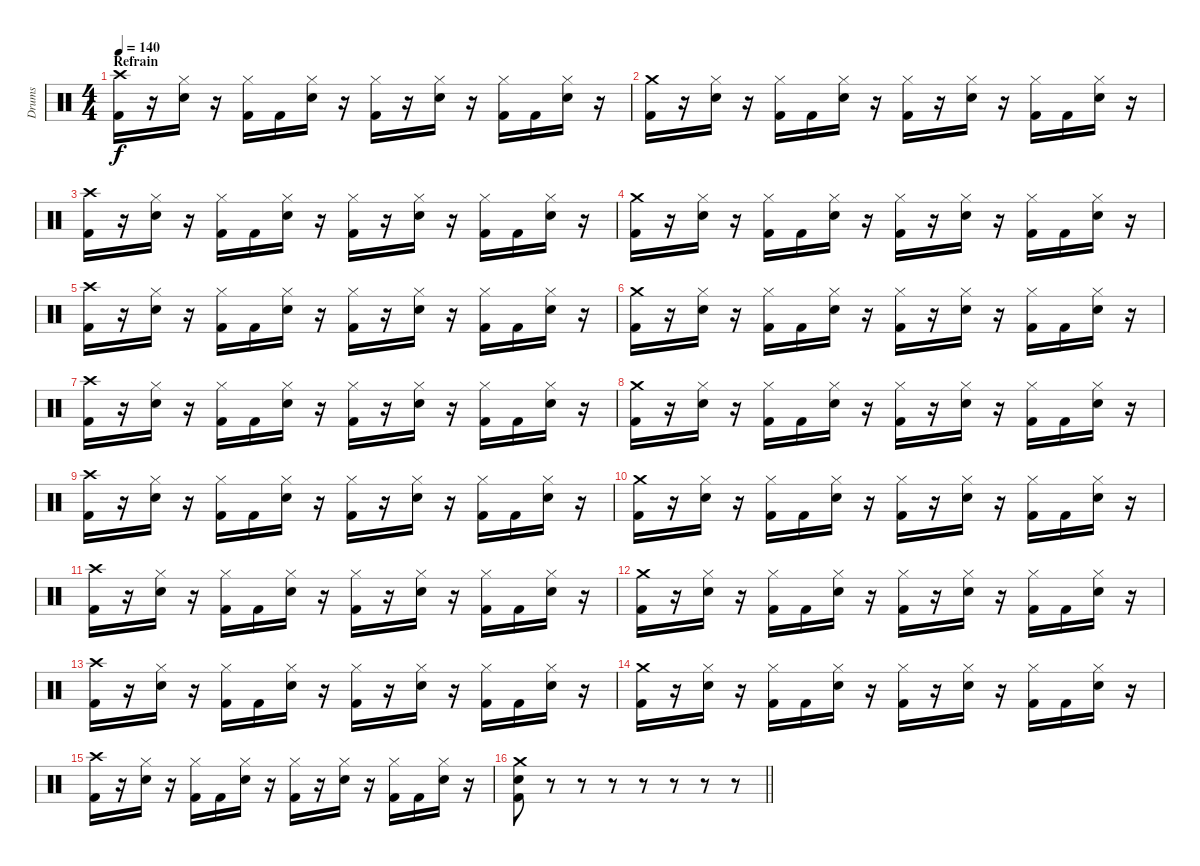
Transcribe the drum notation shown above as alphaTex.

\track ("Drums" "Drums") {instrument percussion}
\staff {score}
\articulation defaults
\ts (4 4)
\section ("" "Refrain")
\tempo 140
\clef neutral
\ks c
("Crash high (hit)" "Kick (hit) 2").16{dy f} r.16 ("Hi-Hat (closed)" "Electric Snare (hit)").16 r.16 ("Hi-Hat (closed)" "Kick (hit) 2").16 "Kick (hit) 2".16 ("Hi-Hat (closed)" "Electric Snare (hit)").16 r.16 ("Hi-Hat (closed)" "Kick (hit) 2").16 r.16 ("Hi-Hat (closed)" "Electric Snare (hit)").16 r.16 ("Hi-Hat (closed)" "Kick (hit) 2").16 "Kick (hit) 2".16 ("Hi-Hat (closed)" "Electric Snare (hit)").16 r.16 |
("Crash medium (hit)" "Kick (hit) 2").16 r.16 ("Hi-Hat (closed)" "Electric Snare (hit)").16 r.16 ("Hi-Hat (closed)" "Kick (hit) 2").16 "Kick (hit) 2".16 ("Hi-Hat (closed)" "Electric Snare (hit)").16 r.16 ("Hi-Hat (closed)" "Kick (hit) 2").16 r.16 ("Hi-Hat (closed)" "Electric Snare (hit)").16 r.16 ("Hi-Hat (closed)" "Kick (hit) 2").16 "Kick (hit) 2".16 ("Hi-Hat (closed)" "Electric Snare (hit)").16 r.16 |
("Crash high (hit)" "Kick (hit) 2").16 r.16 ("Hi-Hat (closed)" "Electric Snare (hit)").16 r.16 ("Hi-Hat (closed)" "Kick (hit) 2").16 "Kick (hit) 2".16 ("Hi-Hat (closed)" "Electric Snare (hit)").16 r.16 ("Hi-Hat (closed)" "Kick (hit) 2").16 r.16 ("Hi-Hat (closed)" "Electric Snare (hit)").16 r.16 ("Hi-Hat (closed)" "Kick (hit) 2").16 "Kick (hit) 2".16 ("Hi-Hat (closed)" "Electric Snare (hit)").16 r.16 |
("Crash medium (hit)" "Kick (hit) 2").16 r.16 ("Hi-Hat (closed)" "Electric Snare (hit)").16 r.16 ("Hi-Hat (closed)" "Kick (hit) 2").16 "Kick (hit) 2".16 ("Hi-Hat (closed)" "Electric Snare (hit)").16 r.16 ("Hi-Hat (closed)" "Kick (hit) 2").16 r.16 ("Hi-Hat (closed)" "Electric Snare (hit)").16 r.16 ("Hi-Hat (closed)" "Kick (hit) 2").16 "Kick (hit) 2".16 ("Hi-Hat (closed)" "Electric Snare (hit)").16 r.16 |
("Crash high (hit)" "Kick (hit) 2").16 r.16 ("Hi-Hat (closed)" "Electric Snare (hit)").16 r.16 ("Hi-Hat (closed)" "Kick (hit) 2").16 "Kick (hit) 2".16 ("Hi-Hat (closed)" "Electric Snare (hit)").16 r.16 ("Hi-Hat (closed)" "Kick (hit) 2").16 r.16 ("Hi-Hat (closed)" "Electric Snare (hit)").16 r.16 ("Hi-Hat (closed)" "Kick (hit) 2").16 "Kick (hit) 2".16 ("Hi-Hat (closed)" "Electric Snare (hit)").16 r.16 |
("Crash medium (hit)" "Kick (hit) 2").16 r.16 ("Hi-Hat (closed)" "Electric Snare (hit)").16 r.16 ("Hi-Hat (closed)" "Kick (hit) 2").16 "Kick (hit) 2".16 ("Hi-Hat (closed)" "Electric Snare (hit)").16 r.16 ("Hi-Hat (closed)" "Kick (hit) 2").16 r.16 ("Hi-Hat (closed)" "Electric Snare (hit)").16 r.16 ("Hi-Hat (closed)" "Kick (hit) 2").16 "Kick (hit) 2".16 ("Hi-Hat (closed)" "Electric Snare (hit)").16 r.16 |
("Crash high (hit)" "Kick (hit) 2").16 r.16 ("Hi-Hat (closed)" "Electric Snare (hit)").16 r.16 ("Hi-Hat (closed)" "Kick (hit) 2").16 "Kick (hit) 2".16 ("Hi-Hat (closed)" "Electric Snare (hit)").16 r.16 ("Hi-Hat (closed)" "Kick (hit) 2").16 r.16 ("Hi-Hat (closed)" "Electric Snare (hit)").16 r.16 ("Hi-Hat (closed)" "Kick (hit) 2").16 "Kick (hit) 2".16 ("Hi-Hat (closed)" "Electric Snare (hit)").16 r.16 |
("Crash medium (hit)" "Kick (hit) 2").16 r.16 ("Hi-Hat (closed)" "Electric Snare (hit)").16 r.16 ("Hi-Hat (closed)" "Kick (hit) 2").16 "Kick (hit) 2".16 ("Hi-Hat (closed)" "Electric Snare (hit)").16 r.16 ("Hi-Hat (closed)" "Kick (hit) 2").16 r.16 ("Hi-Hat (closed)" "Electric Snare (hit)").16 r.16 ("Hi-Hat (closed)" "Kick (hit) 2").16 "Kick (hit) 2".16 ("Hi-Hat (closed)" "Electric Snare (hit)").16 r.16 |
("Crash high (hit)" "Kick (hit) 2").16 r.16 ("Hi-Hat (closed)" "Electric Snare (hit)").16 r.16 ("Hi-Hat (closed)" "Kick (hit) 2").16 "Kick (hit) 2".16 ("Hi-Hat (closed)" "Electric Snare (hit)").16 r.16 ("Hi-Hat (closed)" "Kick (hit) 2").16 r.16 ("Hi-Hat (closed)" "Electric Snare (hit)").16 r.16 ("Hi-Hat (closed)" "Kick (hit) 2").16 "Kick (hit) 2".16 ("Hi-Hat (closed)" "Electric Snare (hit)").16 r.16 |
("Crash medium (hit)" "Kick (hit) 2").16 r.16 ("Hi-Hat (closed)" "Electric Snare (hit)").16 r.16 ("Hi-Hat (closed)" "Kick (hit) 2").16 "Kick (hit) 2".16 ("Hi-Hat (closed)" "Electric Snare (hit)").16 r.16 ("Hi-Hat (closed)" "Kick (hit) 2").16 r.16 ("Hi-Hat (closed)" "Electric Snare (hit)").16 r.16 ("Hi-Hat (closed)" "Kick (hit) 2").16 "Kick (hit) 2".16 ("Hi-Hat (closed)" "Electric Snare (hit)").16 r.16 |
("Crash high (hit)" "Kick (hit) 2").16 r.16 ("Hi-Hat (closed)" "Electric Snare (hit)").16 r.16 ("Hi-Hat (closed)" "Kick (hit) 2").16 "Kick (hit) 2".16 ("Hi-Hat (closed)" "Electric Snare (hit)").16 r.16 ("Hi-Hat (closed)" "Kick (hit) 2").16 r.16 ("Hi-Hat (closed)" "Electric Snare (hit)").16 r.16 ("Hi-Hat (closed)" "Kick (hit) 2").16 "Kick (hit) 2".16 ("Hi-Hat (closed)" "Electric Snare (hit)").16 r.16 |
("Crash medium (hit)" "Kick (hit) 2").16 r.16 ("Hi-Hat (closed)" "Electric Snare (hit)").16 r.16 ("Hi-Hat (closed)" "Kick (hit) 2").16 "Kick (hit) 2".16 ("Hi-Hat (closed)" "Electric Snare (hit)").16 r.16 ("Hi-Hat (closed)" "Kick (hit) 2").16 r.16 ("Hi-Hat (closed)" "Electric Snare (hit)").16 r.16 ("Hi-Hat (closed)" "Kick (hit) 2").16 "Kick (hit) 2".16 ("Hi-Hat (closed)" "Electric Snare (hit)").16 r.16 |
("Crash high (hit)" "Kick (hit) 2").16 r.16 ("Hi-Hat (closed)" "Electric Snare (hit)").16 r.16 ("Hi-Hat (closed)" "Kick (hit) 2").16 "Kick (hit) 2".16 ("Hi-Hat (closed)" "Electric Snare (hit)").16 r.16 ("Hi-Hat (closed)" "Kick (hit) 2").16 r.16 ("Hi-Hat (closed)" "Electric Snare (hit)").16 r.16 ("Hi-Hat (closed)" "Kick (hit) 2").16 "Kick (hit) 2".16 ("Hi-Hat (closed)" "Electric Snare (hit)").16 r.16 |
("Crash medium (hit)" "Kick (hit) 2").16 r.16 ("Hi-Hat (closed)" "Electric Snare (hit)").16 r.16 ("Hi-Hat (closed)" "Kick (hit) 2").16 "Kick (hit) 2".16 ("Hi-Hat (closed)" "Electric Snare (hit)").16 r.16 ("Hi-Hat (closed)" "Kick (hit) 2").16 r.16 ("Hi-Hat (closed)" "Electric Snare (hit)").16 r.16 ("Hi-Hat (closed)" "Kick (hit) 2").16 "Kick (hit) 2".16 ("Hi-Hat (closed)" "Electric Snare (hit)").16 r.16 |
("Crash high (hit)" "Kick (hit) 2").16 r.16 ("Hi-Hat (closed)" "Electric Snare (hit)").16 r.16 ("Hi-Hat (closed)" "Kick (hit) 2").16 "Kick (hit) 2".16 ("Hi-Hat (closed)" "Electric Snare (hit)").16 r.16 ("Hi-Hat (closed)" "Kick (hit) 2").16 r.16 ("Hi-Hat (closed)" "Electric Snare (hit)").16 r.16 ("Hi-Hat (closed)" "Kick (hit) 2").16 "Kick (hit) 2".16 ("Hi-Hat (closed)" "Electric Snare (hit)").16 r.16 |
\barLineRight lightlight
("Crash medium (hit)" "Electric Snare (hit)" "Kick (hit) 2").8 r.8 r.8 r.8 r.8 r.8 r.8 r.8
